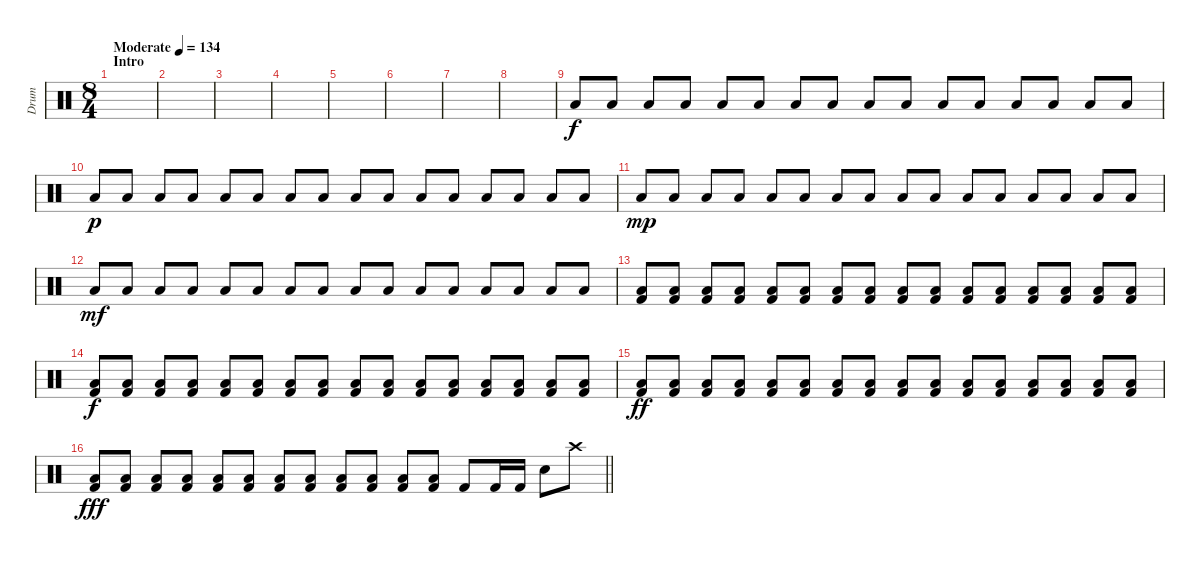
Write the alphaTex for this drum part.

\track ("Drum" "Drum") {instrument percussion}
\staff {score}
\articulation defaults
\ts (8 4)
\section ("" "Intro")
\tempo (134 "Moderate")
\clef neutral
\ks c
|
|
|
|
|
|
|
|
"Low Tom (hit)".8 "Low Tom (hit)".8 "Low Tom (hit)".8 "Low Tom (hit)".8 "Low Tom (hit)".8 "Low Tom (hit)".8 "Low Tom (hit)".8 "Low Tom (hit)".8 "Low Tom (hit)".8 "Low Tom (hit)".8 "Low Tom (hit)".8 "Low Tom (hit)".8 "Low Tom (hit)".8 "Low Tom (hit)".8 "Low Tom (hit)".8 "Low Tom (hit)".8 |
"Low Tom (hit)".8{dy p} "Low Tom (hit)".8 "Low Tom (hit)".8 "Low Tom (hit)".8 "Low Tom (hit)".8 "Low Tom (hit)".8 "Low Tom (hit)".8 "Low Tom (hit)".8 "Low Tom (hit)".8 "Low Tom (hit)".8 "Low Tom (hit)".8 "Low Tom (hit)".8 "Low Tom (hit)".8 "Low Tom (hit)".8 "Low Tom (hit)".8 "Low Tom (hit)".8 |
"Low Tom (hit)".8{dy mp} "Low Tom (hit)".8 "Low Tom (hit)".8 "Low Tom (hit)".8 "Low Tom (hit)".8 "Low Tom (hit)".8 "Low Tom (hit)".8 "Low Tom (hit)".8 "Low Tom (hit)".8 "Low Tom (hit)".8 "Low Tom (hit)".8 "Low Tom (hit)".8 "Low Tom (hit)".8 "Low Tom (hit)".8 "Low Tom (hit)".8 "Low Tom (hit)".8 |
"Low Tom (hit)".8{dy mf} "Low Tom (hit)".8 "Low Tom (hit)".8 "Low Tom (hit)".8 "Low Tom (hit)".8 "Low Tom (hit)".8 "Low Tom (hit)".8 "Low Tom (hit)".8 "Low Tom (hit)".8 "Low Tom (hit)".8 "Low Tom (hit)".8 "Low Tom (hit)".8 "Low Tom (hit)".8 "Low Tom (hit)".8 "Low Tom (hit)".8 "Low Tom (hit)".8 |
("Low Tom (hit)" "Kick (hit) 2").8 ("Low Tom (hit)" "Kick (hit) 2").8 ("Low Tom (hit)" "Kick (hit) 2").8 ("Low Tom (hit)" "Kick (hit) 2").8 ("Low Tom (hit)" "Kick (hit) 2").8 ("Low Tom (hit)" "Kick (hit) 2").8 ("Low Tom (hit)" "Kick (hit) 2").8 ("Low Tom (hit)" "Kick (hit) 2").8 ("Low Tom (hit)" "Kick (hit) 2").8 ("Low Tom (hit)" "Kick (hit) 2").8 ("Low Tom (hit)" "Kick (hit) 2").8 ("Low Tom (hit)" "Kick (hit) 2").8 ("Low Tom (hit)" "Kick (hit) 2").8 ("Low Tom (hit)" "Kick (hit) 2").8 ("Low Tom (hit)" "Kick (hit) 2").8 ("Low Tom (hit)" "Kick (hit) 2").8 |
("Low Tom (hit)" "Kick (hit) 2").8{dy f} ("Low Tom (hit)" "Kick (hit) 2").8 ("Low Tom (hit)" "Kick (hit) 2").8 ("Low Tom (hit)" "Kick (hit) 2").8 ("Low Tom (hit)" "Kick (hit) 2").8 ("Low Tom (hit)" "Kick (hit) 2").8 ("Low Tom (hit)" "Kick (hit) 2").8 ("Low Tom (hit)" "Kick (hit) 2").8 ("Low Tom (hit)" "Kick (hit) 2").8 ("Low Tom (hit)" "Kick (hit) 2").8 ("Low Tom (hit)" "Kick (hit) 2").8 ("Low Tom (hit)" "Kick (hit) 2").8 ("Low Tom (hit)" "Kick (hit) 2").8 ("Low Tom (hit)" "Kick (hit) 2").8 ("Low Tom (hit)" "Kick (hit) 2").8 ("Low Tom (hit)" "Kick (hit) 2").8 |
("Low Tom (hit)" "Kick (hit) 2").8{dy ff} ("Low Tom (hit)" "Kick (hit) 2").8 ("Low Tom (hit)" "Kick (hit) 2").8 ("Low Tom (hit)" "Kick (hit) 2").8 ("Low Tom (hit)" "Kick (hit) 2").8 ("Low Tom (hit)" "Kick (hit) 2").8 ("Low Tom (hit)" "Kick (hit) 2").8 ("Low Tom (hit)" "Kick (hit) 2").8 ("Low Tom (hit)" "Kick (hit) 2").8 ("Low Tom (hit)" "Kick (hit) 2").8 ("Low Tom (hit)" "Kick (hit) 2").8 ("Low Tom (hit)" "Kick (hit) 2").8 ("Low Tom (hit)" "Kick (hit) 2").8 ("Low Tom (hit)" "Kick (hit) 2").8 ("Low Tom (hit)" "Kick (hit) 2").8 ("Low Tom (hit)" "Kick (hit) 2").8 |
\barLineRight lightlight
("Low Tom (hit)" "Kick (hit) 2").8{dy fff} ("Low Tom (hit)" "Kick (hit) 2").8 ("Low Tom (hit)" "Kick (hit) 2").8 ("Low Tom (hit)" "Kick (hit) 2").8 ("Low Tom (hit)" "Kick (hit) 2").8 ("Low Tom (hit)" "Kick (hit) 2").8 ("Low Tom (hit)" "Kick (hit) 2").8 ("Low Tom (hit)" "Kick (hit) 2").8 ("Low Tom (hit)" "Kick (hit) 2").8 ("Low Tom (hit)" "Kick (hit) 2").8 ("Low Tom (hit)" "Kick (hit) 2").8 ("Low Tom (hit)" "Kick (hit) 2").8 "Kick (hit) 2".8 "Kick (hit) 2".16 "Kick (hit) 2".16 "Snare (hit) 2".8 "Crash high (hit)".8
